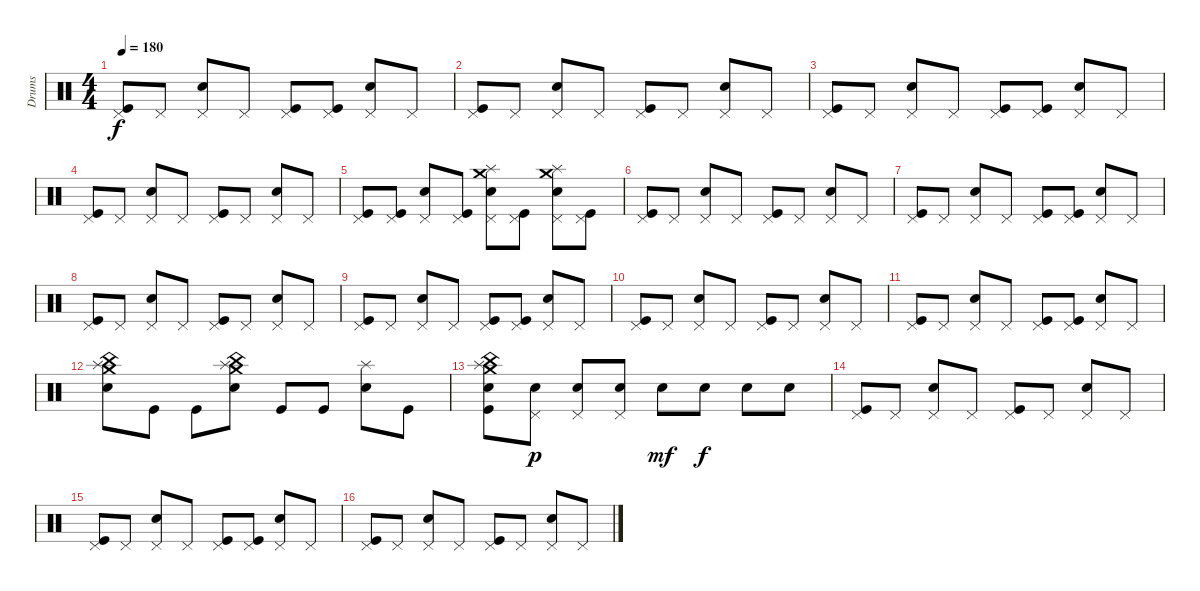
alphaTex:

\track ("Drums" "Drums") {instrument percussion}
\staff {score}
\articulation defaults
\ts (4 4)
\tempo 180
\clef neutral
\ks c
("Pedal Hi-Hat (hit)" "Kick (hit)").8{dy f} "Pedal Hi-Hat (hit)".8 ("Pedal Hi-Hat (hit)" "Snare (hit) 2").8 "Pedal Hi-Hat (hit)".8 ("Pedal Hi-Hat (hit)" "Kick (hit)").8 ("Pedal Hi-Hat (hit)" "Kick (hit)").8 ("Pedal Hi-Hat (hit)" "Snare (hit) 2").8 "Pedal Hi-Hat (hit)".8 |
("Pedal Hi-Hat (hit)" "Kick (hit)").8 "Pedal Hi-Hat (hit)".8 ("Pedal Hi-Hat (hit)" "Snare (hit) 2").8 "Pedal Hi-Hat (hit)".8 ("Pedal Hi-Hat (hit)" "Kick (hit)").8 "Pedal Hi-Hat (hit)".8 ("Pedal Hi-Hat (hit)" "Snare (hit) 2").8 "Pedal Hi-Hat (hit)".8 |
("Pedal Hi-Hat (hit)" "Kick (hit)").8 "Pedal Hi-Hat (hit)".8 ("Pedal Hi-Hat (hit)" "Snare (hit) 2").8 "Pedal Hi-Hat (hit)".8 ("Pedal Hi-Hat (hit)" "Kick (hit)").8 ("Pedal Hi-Hat (hit)" "Kick (hit)").8 ("Pedal Hi-Hat (hit)" "Snare (hit) 2").8 "Pedal Hi-Hat (hit)".8 |
("Pedal Hi-Hat (hit)" "Kick (hit)").8 "Pedal Hi-Hat (hit)".8 ("Pedal Hi-Hat (hit)" "Snare (hit) 2").8 "Pedal Hi-Hat (hit)".8 ("Pedal Hi-Hat (hit)" "Kick (hit)").8 "Pedal Hi-Hat (hit)".8 ("Pedal Hi-Hat (hit)" "Snare (hit) 2").8 "Pedal Hi-Hat (hit)".8 |
("Pedal Hi-Hat (hit)" "Kick (hit)").8 ("Pedal Hi-Hat (hit)" "Kick (hit)").8 ("Pedal Hi-Hat (hit)" "Snare (hit) 2").8 ("Pedal Hi-Hat (hit)" "Kick (hit)").8 ("Pedal Hi-Hat (hit)" "Crash medium (hit)" "Splash (hit)" "Snare (hit) 2").8 ("Pedal Hi-Hat (hit)" "Kick (hit)").8 ("Pedal Hi-Hat (hit)" "Crash medium (hit)" "Splash (hit)" "Snare (hit) 2").8 ("Pedal Hi-Hat (hit)" "Kick (hit)").8 |
("Pedal Hi-Hat (hit)" "Kick (hit)").8 "Pedal Hi-Hat (hit)".8 ("Pedal Hi-Hat (hit)" "Snare (hit) 2").8 "Pedal Hi-Hat (hit)".8 ("Pedal Hi-Hat (hit)" "Kick (hit)").8 "Pedal Hi-Hat (hit)".8 ("Pedal Hi-Hat (hit)" "Snare (hit) 2").8 "Pedal Hi-Hat (hit)".8 |
("Pedal Hi-Hat (hit)" "Kick (hit)").8 "Pedal Hi-Hat (hit)".8 ("Pedal Hi-Hat (hit)" "Snare (hit) 2").8 "Pedal Hi-Hat (hit)".8 ("Pedal Hi-Hat (hit)" "Kick (hit)").8 ("Pedal Hi-Hat (hit)" "Kick (hit)").8 ("Pedal Hi-Hat (hit)" "Snare (hit) 2").8 "Pedal Hi-Hat (hit)".8 |
("Pedal Hi-Hat (hit)" "Kick (hit)").8 "Pedal Hi-Hat (hit)".8 ("Pedal Hi-Hat (hit)" "Snare (hit) 2").8 "Pedal Hi-Hat (hit)".8 ("Pedal Hi-Hat (hit)" "Kick (hit)").8 "Pedal Hi-Hat (hit)".8 ("Pedal Hi-Hat (hit)" "Snare (hit) 2").8 "Pedal Hi-Hat (hit)".8 |
("Pedal Hi-Hat (hit)" "Kick (hit)").8 "Pedal Hi-Hat (hit)".8 ("Pedal Hi-Hat (hit)" "Snare (hit) 2").8 "Pedal Hi-Hat (hit)".8 ("Pedal Hi-Hat (hit)" "Kick (hit)").8 ("Pedal Hi-Hat (hit)" "Kick (hit)").8 ("Pedal Hi-Hat (hit)" "Snare (hit) 2").8 "Pedal Hi-Hat (hit)".8 |
("Pedal Hi-Hat (hit)" "Kick (hit)").8 "Pedal Hi-Hat (hit)".8 ("Pedal Hi-Hat (hit)" "Snare (hit) 2").8 "Pedal Hi-Hat (hit)".8 ("Pedal Hi-Hat (hit)" "Kick (hit)").8 "Pedal Hi-Hat (hit)".8 ("Pedal Hi-Hat (hit)" "Snare (hit) 2").8 "Pedal Hi-Hat (hit)".8 |
("Pedal Hi-Hat (hit)" "Kick (hit)").8 "Pedal Hi-Hat (hit)".8 ("Pedal Hi-Hat (hit)" "Snare (hit) 2").8 "Pedal Hi-Hat (hit)".8 ("Pedal Hi-Hat (hit)" "Kick (hit)").8 ("Pedal Hi-Hat (hit)" "Kick (hit)").8 ("Pedal Hi-Hat (hit)" "Snare (hit) 2").8 "Pedal Hi-Hat (hit)".8 |
("Splash (hit)" "China (hit)" "Crash medium (hit)" "Snare (hit) 2").8 "Kick (hit)".8 "Kick (hit)".8 ("China (hit)" "Splash (hit)" "Crash medium (hit)" "Snare (hit) 2").8 "Kick (hit)".8 "Kick (hit)".8 ("Splash (hit)" "Snare (hit) 2").8 "Kick (hit)".8 |
("Crash medium (hit)" "Splash (hit)" "China (hit)" "Snare (hit) 2" "Kick (hit)").8 ("Pedal Hi-Hat (hit)" "Snare (hit) 2").8{dy p} ("Pedal Hi-Hat (hit)" "Snare (hit) 2").8 ("Pedal Hi-Hat (hit)" "Snare (hit) 2").8 "Snare (hit) 2".8{dy mf} "Snare (hit) 2".8{dy f} "Snare (hit) 2".8 "Snare (hit) 2".8 |
("Pedal Hi-Hat (hit)" "Kick (hit)").8 "Pedal Hi-Hat (hit)".8 ("Pedal Hi-Hat (hit)" "Snare (hit) 2").8 "Pedal Hi-Hat (hit)".8 ("Pedal Hi-Hat (hit)" "Kick (hit)").8 "Pedal Hi-Hat (hit)".8 ("Pedal Hi-Hat (hit)" "Snare (hit) 2").8 "Pedal Hi-Hat (hit)".8 |
("Pedal Hi-Hat (hit)" "Kick (hit)").8 "Pedal Hi-Hat (hit)".8 ("Pedal Hi-Hat (hit)" "Snare (hit) 2").8 "Pedal Hi-Hat (hit)".8 ("Pedal Hi-Hat (hit)" "Kick (hit)").8 ("Pedal Hi-Hat (hit)" "Kick (hit)").8 ("Pedal Hi-Hat (hit)" "Snare (hit) 2").8 "Pedal Hi-Hat (hit)".8 |
("Pedal Hi-Hat (hit)" "Kick (hit)").8 "Pedal Hi-Hat (hit)".8 ("Pedal Hi-Hat (hit)" "Snare (hit) 2").8 "Pedal Hi-Hat (hit)".8 ("Pedal Hi-Hat (hit)" "Kick (hit)").8 "Pedal Hi-Hat (hit)".8 ("Pedal Hi-Hat (hit)" "Snare (hit) 2").8 "Pedal Hi-Hat (hit)".8
